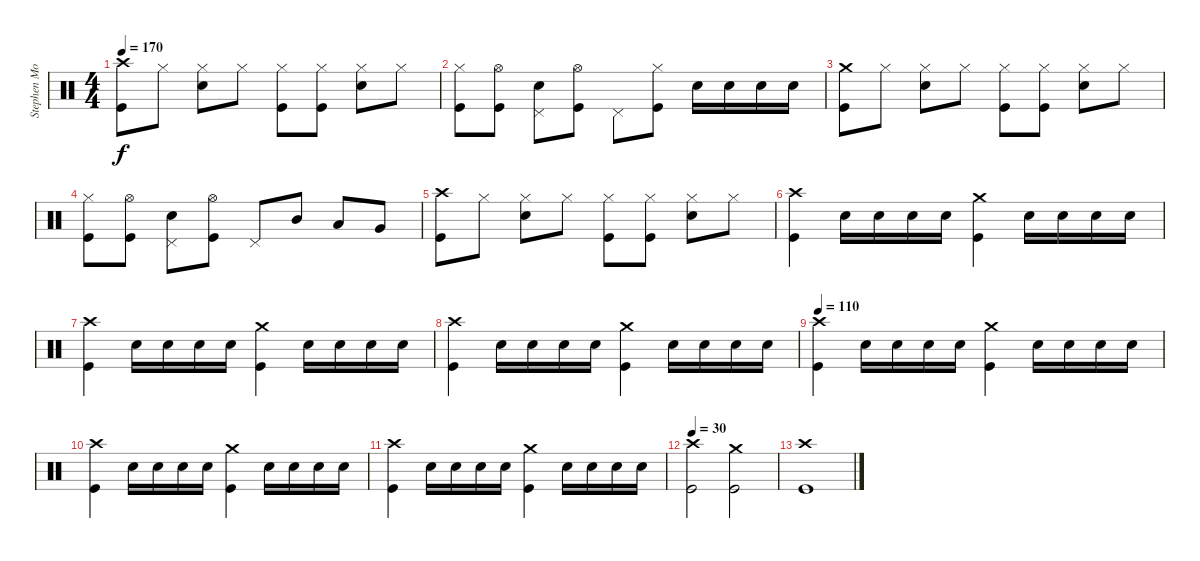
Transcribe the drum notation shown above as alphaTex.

\track ("Stephen Morris (Drums)" "Stephen Mo") {instrument percussion}
\staff {score}
\articulation defaults
\ts (4 4)
\tempo 170
\clef neutral
\ks c
("Crash high (hit)" "Kick (hit)").8{dy f} "Hi-Hat (closed)".8 ("Hi-Hat (closed)" "Electric Snare (hit)").8 "Hi-Hat (closed)".8 ("Hi-Hat (closed)" "Kick (hit)").8 ("Hi-Hat (closed)" "Kick (hit)").8 ("Hi-Hat (closed)" "Electric Snare (hit)").8 "Hi-Hat (closed)".8 |
("Hi-Hat (closed)" "Kick (hit)").8 ("Hi-Hat (open)" "Kick (hit)").8 ("Pedal Hi-Hat (hit)" "Electric Snare (hit)").8 ("Hi-Hat (open)" "Kick (hit)").8 "Pedal Hi-Hat (hit)".8 ("Hi-Hat (closed)" "Kick (hit)").8 "Electric Snare (hit)".16 "Electric Snare (hit)".16 "Electric Snare (hit)".16 "Electric Snare (hit)".16 |
("Crash medium (hit)" "Kick (hit)").8 "Hi-Hat (closed)".8 ("Hi-Hat (closed)" "Electric Snare (hit)").8 "Hi-Hat (closed)".8 ("Hi-Hat (closed)" "Kick (hit)").8 ("Hi-Hat (closed)" "Kick (hit)").8 ("Hi-Hat (closed)" "Electric Snare (hit)").8 "Hi-Hat (closed)".8 |
("Hi-Hat (closed)" "Kick (hit)").8 ("Hi-Hat (open)" "Kick (hit)").8 ("Pedal Hi-Hat (hit)" "Electric Snare (hit)").8 ("Hi-Hat (open)" "Kick (hit)").8 "Pedal Hi-Hat (hit)".8 "Mid Tom (hit)".8 "Low Tom (hit)".8 "Very Low Tom (hit)".8 |
("Crash high (hit)" "Kick (hit)").8 "Hi-Hat (closed)".8 ("Hi-Hat (closed)" "Electric Snare (hit)").8 "Hi-Hat (closed)".8 ("Hi-Hat (closed)" "Kick (hit)").8 ("Hi-Hat (closed)" "Kick (hit)").8 ("Hi-Hat (closed)" "Electric Snare (hit)").8 "Hi-Hat (closed)".8 |
("Crash high (hit)" "Kick (hit)").4 "Electric Snare (hit)".16 "Electric Snare (hit)".16 "Electric Snare (hit)".16 "Electric Snare (hit)".16 ("Crash medium (hit)" "Kick (hit)").4 "Electric Snare (hit)".16 "Electric Snare (hit)".16 "Electric Snare (hit)".16 "Electric Snare (hit)".16 |
("Crash high (hit)" "Kick (hit)").4 "Electric Snare (hit)".16 "Electric Snare (hit)".16 "Electric Snare (hit)".16 "Electric Snare (hit)".16 ("Crash medium (hit)" "Kick (hit)").4 "Electric Snare (hit)".16 "Electric Snare (hit)".16 "Electric Snare (hit)".16 "Electric Snare (hit)".16 |
("Crash high (hit)" "Kick (hit)").4 "Electric Snare (hit)".16 "Electric Snare (hit)".16 "Electric Snare (hit)".16 "Electric Snare (hit)".16 ("Crash medium (hit)" "Kick (hit)").4 "Electric Snare (hit)".16 "Electric Snare (hit)".16 "Electric Snare (hit)".16 "Electric Snare (hit)".16 |
\tempo 110
("Crash high (hit)" "Kick (hit)").4 "Electric Snare (hit)".16 "Electric Snare (hit)".16 "Electric Snare (hit)".16 "Electric Snare (hit)".16 ("Crash medium (hit)" "Kick (hit)").4 "Electric Snare (hit)".16 "Electric Snare (hit)".16 "Electric Snare (hit)".16 "Electric Snare (hit)".16 |
("Crash high (hit)" "Kick (hit)").4 "Electric Snare (hit)".16 "Electric Snare (hit)".16 "Electric Snare (hit)".16 "Electric Snare (hit)".16 ("Crash medium (hit)" "Kick (hit)").4 "Electric Snare (hit)".16 "Electric Snare (hit)".16 "Electric Snare (hit)".16 "Electric Snare (hit)".16 |
("Crash high (hit)" "Kick (hit)").4 "Electric Snare (hit)".16 "Electric Snare (hit)".16 "Electric Snare (hit)".16 "Electric Snare (hit)".16 ("Crash medium (hit)" "Kick (hit)").4 "Electric Snare (hit)".16 "Electric Snare (hit)".16 "Electric Snare (hit)".16 "Electric Snare (hit)".16 |
\tempo 30
("Crash high (hit)" "Kick (hit)").2 ("Crash medium (hit)" "Kick (hit)").2 |
("Crash high (hit)" "Kick (hit)").1
